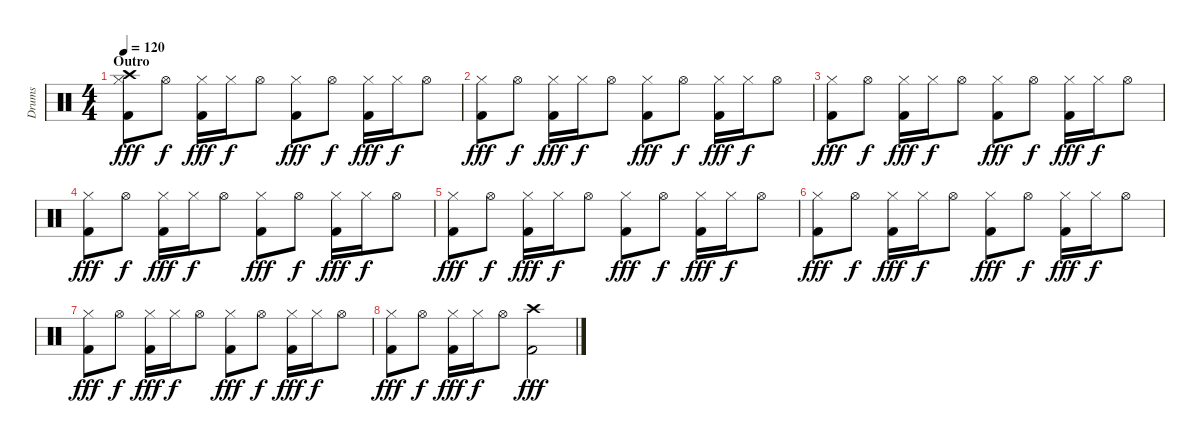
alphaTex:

\track ("Drums" "Drums") {instrument percussion}
\staff {score}
\articulation defaults
\ts (4 4)
\section ("" "Outro")
\tempo 120
\clef neutral
\ks c
("Hi-Hat (closed)" "Crash high (hit)" "Kick (hit) 2").8{dy fff} "Hi-Hat (open)".8{dy f} ("Hi-Hat (closed)" "Kick (hit) 2").16{dy fff} "Hi-Hat (closed)".16{dy f} "Hi-Hat (open)".8 ("Hi-Hat (closed)" "Kick (hit) 2").8{dy fff} "Hi-Hat (open)".8{dy f} ("Hi-Hat (closed)" "Kick (hit) 2").16{dy fff} "Hi-Hat (closed)".16{dy f} "Hi-Hat (open)".8 |
("Hi-Hat (closed)" "Kick (hit) 2").8{dy fff} "Hi-Hat (open)".8{dy f} ("Hi-Hat (closed)" "Kick (hit) 2").16{dy fff} "Hi-Hat (closed)".16{dy f} "Hi-Hat (open)".8 ("Hi-Hat (closed)" "Kick (hit) 2").8{dy fff} "Hi-Hat (open)".8{dy f} ("Hi-Hat (closed)" "Kick (hit) 2").16{dy fff} "Hi-Hat (closed)".16{dy f} "Hi-Hat (open)".8 |
("Hi-Hat (closed)" "Kick (hit) 2").8{dy fff} "Hi-Hat (open)".8{dy f} ("Hi-Hat (closed)" "Kick (hit) 2").16{dy fff} "Hi-Hat (closed)".16{dy f} "Hi-Hat (open)".8 ("Hi-Hat (closed)" "Kick (hit) 2").8{dy fff} "Hi-Hat (open)".8{dy f} ("Hi-Hat (closed)" "Kick (hit) 2").16{dy fff} "Hi-Hat (closed)".16{dy f} "Hi-Hat (open)".8 |
("Hi-Hat (closed)" "Kick (hit) 2").8{dy fff} "Hi-Hat (open)".8{dy f} ("Hi-Hat (closed)" "Kick (hit) 2").16{dy fff} "Hi-Hat (closed)".16{dy f} "Hi-Hat (open)".8 ("Hi-Hat (closed)" "Kick (hit) 2").8{dy fff} "Hi-Hat (open)".8{dy f} ("Hi-Hat (closed)" "Kick (hit) 2").16{dy fff} "Hi-Hat (closed)".16{dy f} "Hi-Hat (open)".8 |
("Hi-Hat (closed)" "Kick (hit) 2").8{dy fff} "Hi-Hat (open)".8{dy f} ("Hi-Hat (closed)" "Kick (hit) 2").16{dy fff} "Hi-Hat (closed)".16{dy f} "Hi-Hat (open)".8 ("Hi-Hat (closed)" "Kick (hit) 2").8{dy fff} "Hi-Hat (open)".8{dy f} ("Hi-Hat (closed)" "Kick (hit) 2").16{dy fff} "Hi-Hat (closed)".16{dy f} "Hi-Hat (open)".8 |
("Hi-Hat (closed)" "Kick (hit) 2").8{dy fff} "Hi-Hat (open)".8{dy f} ("Hi-Hat (closed)" "Kick (hit) 2").16{dy fff} "Hi-Hat (closed)".16{dy f} "Hi-Hat (open)".8 ("Hi-Hat (closed)" "Kick (hit) 2").8{dy fff} "Hi-Hat (open)".8{dy f} ("Hi-Hat (closed)" "Kick (hit) 2").16{dy fff} "Hi-Hat (closed)".16{dy f} "Hi-Hat (open)".8 |
("Hi-Hat (closed)" "Kick (hit) 2").8{dy fff} "Hi-Hat (open)".8{dy f} ("Hi-Hat (closed)" "Kick (hit) 2").16{dy fff} "Hi-Hat (closed)".16{dy f} "Hi-Hat (open)".8 ("Hi-Hat (closed)" "Kick (hit) 2").8{dy fff} "Hi-Hat (open)".8{dy f} ("Hi-Hat (closed)" "Kick (hit) 2").16{dy fff} "Hi-Hat (closed)".16{dy f} "Hi-Hat (open)".8 |
("Hi-Hat (closed)" "Kick (hit) 2").8{dy fff} "Hi-Hat (open)".8{dy f} ("Hi-Hat (closed)" "Kick (hit) 2").16{dy fff} "Hi-Hat (closed)".16{dy f} "Hi-Hat (open)".8 ("Crash high (hit)" "Kick (hit) 2").2{dy fff}
